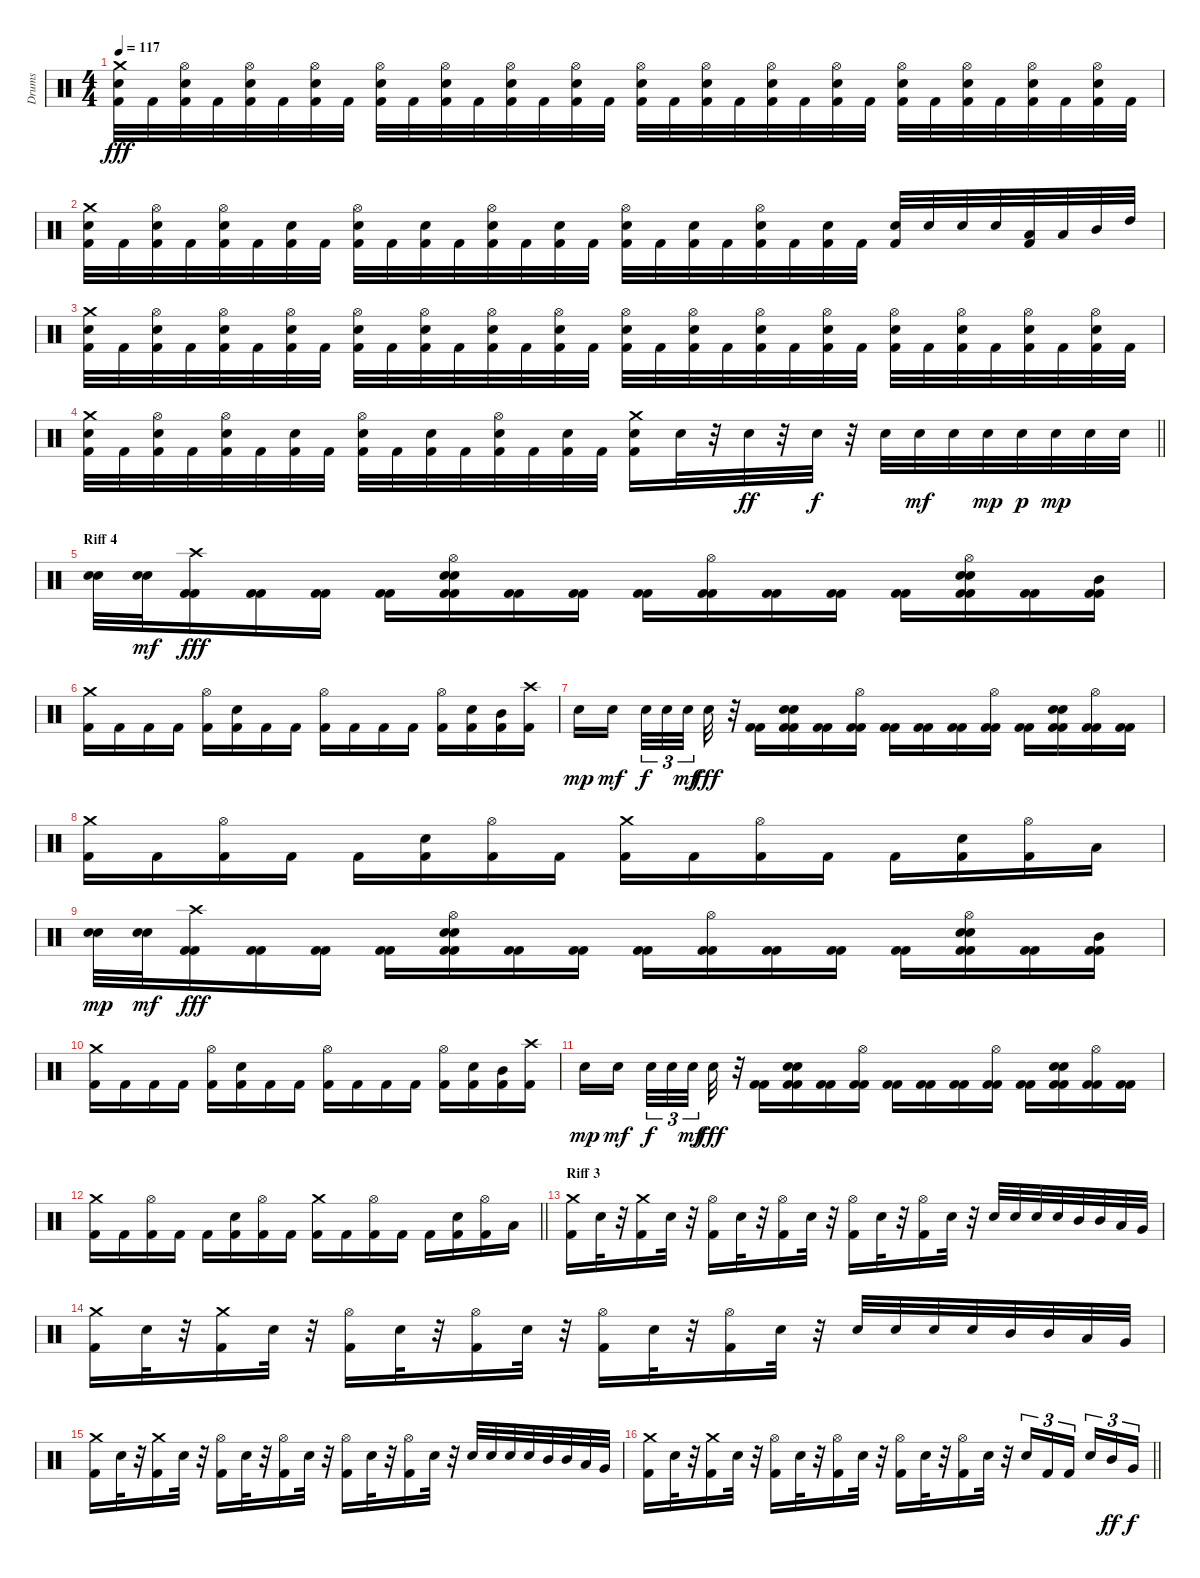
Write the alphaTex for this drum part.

\track ("Drums" "Drums") {instrument percussion}
\staff {score}
\articulation defaults
\ts (4 4)
\tempo 117
\clef neutral
\ks c
("Kick (hit) 2" "Snare (hit) 2" "Crash medium (hit)").32{dy fff} "Kick (hit) 2".32 ("Kick (hit) 2" "Snare (hit) 2" "Hi-Hat (open)").32 "Kick (hit) 2".32 ("Kick (hit) 2" "Snare (hit) 2" "Hi-Hat (open)").32 "Kick (hit) 2".32 ("Kick (hit) 2" "Snare (hit) 2" "Hi-Hat (open)").32 "Kick (hit) 2".32 ("Kick (hit) 2" "Snare (hit) 2" "Hi-Hat (open)").32 "Kick (hit) 2".32 ("Kick (hit) 2" "Snare (hit) 2" "Hi-Hat (open)").32 "Kick (hit) 2".32 ("Kick (hit) 2" "Snare (hit) 2" "Hi-Hat (open)").32 "Kick (hit) 2".32 ("Kick (hit) 2" "Snare (hit) 2" "Hi-Hat (open)").32 "Kick (hit) 2".32 ("Kick (hit) 2" "Snare (hit) 2" "Hi-Hat (open)").32 "Kick (hit) 2".32 ("Kick (hit) 2" "Snare (hit) 2" "Hi-Hat (open)").32 "Kick (hit) 2".32 ("Kick (hit) 2" "Snare (hit) 2" "Hi-Hat (open)").32 "Kick (hit) 2".32 ("Kick (hit) 2" "Snare (hit) 2" "Hi-Hat (open)").32 "Kick (hit) 2".32 ("Kick (hit) 2" "Snare (hit) 2" "Hi-Hat (open)").32 "Kick (hit) 2".32 ("Kick (hit) 2" "Snare (hit) 2" "Hi-Hat (open)").32 "Kick (hit) 2".32 ("Kick (hit) 2" "Snare (hit) 2" "Hi-Hat (open)").32 "Kick (hit) 2".32 ("Kick (hit) 2" "Snare (hit) 2" "Hi-Hat (open)").32 "Kick (hit) 2".32 |
("Kick (hit) 2" "Snare (hit) 2" "Crash medium (hit)").32 "Kick (hit) 2".32 ("Kick (hit) 2" "Snare (hit) 2" "Hi-Hat (open)").32 "Kick (hit) 2".32 ("Kick (hit) 2" "Snare (hit) 2" "Hi-Hat (open)").32 "Kick (hit) 2".32 ("Kick (hit) 2" "Snare (hit) 2").32 "Kick (hit) 2".32 ("Kick (hit) 2" "Snare (hit) 2" "Hi-Hat (open)").32 "Kick (hit) 2".32 ("Kick (hit) 2" "Snare (hit) 2").32 "Kick (hit) 2".32 ("Kick (hit) 2" "Snare (hit) 2" "Hi-Hat (open)").32 "Kick (hit) 2".32 ("Kick (hit) 2" "Snare (hit) 2").32 "Kick (hit) 2".32 ("Kick (hit) 2" "Snare (hit) 2" "Hi-Hat (open)").32 "Kick (hit) 2".32 ("Kick (hit) 2" "Snare (hit) 2").32 "Kick (hit) 2".32 ("Kick (hit) 2" "Snare (hit) 2" "Hi-Hat (open)").32 "Kick (hit) 2".32 ("Kick (hit) 2" "Snare (hit) 2").32 "Kick (hit) 2".32 ("Kick (hit) 2" "Snare (hit) 2").32 "Snare (hit) 2".32 "Snare (hit) 2".32 "Snare (hit) 2".32 ("Kick (hit) 2" "Low Tom (hit)").32 "Low Tom (hit)".32 "Mid Tom (hit)".32 "High Tom (hit)".32 |
("Kick (hit) 2" "Snare (hit) 2" "Crash medium (hit)").32 "Kick (hit) 2".32 ("Kick (hit) 2" "Snare (hit) 2" "Hi-Hat (open)").32 "Kick (hit) 2".32 ("Kick (hit) 2" "Snare (hit) 2" "Hi-Hat (open)").32 "Kick (hit) 2".32 ("Kick (hit) 2" "Snare (hit) 2" "Hi-Hat (open)").32 "Kick (hit) 2".32 ("Kick (hit) 2" "Snare (hit) 2" "Hi-Hat (open)").32 "Kick (hit) 2".32 ("Kick (hit) 2" "Snare (hit) 2" "Hi-Hat (open)").32 "Kick (hit) 2".32 ("Kick (hit) 2" "Snare (hit) 2" "Hi-Hat (open)").32 "Kick (hit) 2".32 ("Kick (hit) 2" "Snare (hit) 2" "Hi-Hat (open)").32 "Kick (hit) 2".32 ("Kick (hit) 2" "Snare (hit) 2" "Hi-Hat (open)").32 "Kick (hit) 2".32 ("Kick (hit) 2" "Snare (hit) 2" "Hi-Hat (open)").32 "Kick (hit) 2".32 ("Kick (hit) 2" "Snare (hit) 2" "Hi-Hat (open)").32 "Kick (hit) 2".32 ("Kick (hit) 2" "Snare (hit) 2" "Hi-Hat (open)").32 "Kick (hit) 2".32 ("Kick (hit) 2" "Snare (hit) 2" "Hi-Hat (open)").32 "Kick (hit) 2".32 ("Kick (hit) 2" "Snare (hit) 2" "Hi-Hat (open)").32 "Kick (hit) 2".32 ("Kick (hit) 2" "Snare (hit) 2" "Hi-Hat (open)").32 "Kick (hit) 2".32 ("Kick (hit) 2" "Snare (hit) 2" "Hi-Hat (open)").32 "Kick (hit) 2".32 |
\barLineRight lightlight
("Kick (hit) 2" "Snare (hit) 2" "Crash medium (hit)").32 "Kick (hit) 2".32 ("Kick (hit) 2" "Snare (hit) 2" "Hi-Hat (open)").32 "Kick (hit) 2".32 ("Kick (hit) 2" "Snare (hit) 2" "Hi-Hat (open)").32 "Kick (hit) 2".32 ("Kick (hit) 2" "Snare (hit) 2").32 "Kick (hit) 2".32 ("Kick (hit) 2" "Snare (hit) 2" "Hi-Hat (open)").32 "Kick (hit) 2".32 ("Kick (hit) 2" "Snare (hit) 2").32 "Kick (hit) 2".32 ("Kick (hit) 2" "Snare (hit) 2" "Hi-Hat (open)").32 "Kick (hit) 2".32 ("Kick (hit) 2" "Snare (hit) 2").32 "Kick (hit) 2".32 ("Kick (hit) 2" "Snare (hit) 2" "Crash medium (hit)").16 "Snare (hit) 2".32 r.32 "Snare (hit) 2".32{dy ff} r.32 "Snare (hit) 2".32{dy f} r.32 "Snare (hit) 2".32 "Snare (hit) 2".32{dy mf} "Snare (hit) 2".32 "Snare (hit) 2".32{dy mp} "Snare (hit) 2".32{dy p} "Snare (hit) 2".32{dy mp} "Snare (hit) 2".32 "Snare (hit) 2".32 |
\section ("" "Riff 4")
("Snare (hit) 2" "Snare (hit) 2").32 ("Snare (hit) 2" "Snare (hit) 2").32{dy mf} ("Kick (hit) 2" "Kick (hit) 2" "Crash high (hit)").16{dy fff} ("Kick (hit) 2" "Kick (hit) 2").16 ("Kick (hit) 2" "Kick (hit) 2").16 ("Kick (hit) 2" "Kick (hit) 2").16 ("Kick (hit) 2" "Kick (hit) 2" "Snare (hit) 2" "Snare (hit) 2" "Hi-Hat (open)").16 ("Kick (hit) 2" "Kick (hit) 2").16 ("Kick (hit) 2" "Kick (hit) 2").16 ("Kick (hit) 2" "Kick (hit) 2").16 ("Kick (hit) 2" "Kick (hit) 2" "Hi-Hat (open)").16 ("Kick (hit) 2" "Kick (hit) 2").16 ("Kick (hit) 2" "Kick (hit) 2").16 ("Kick (hit) 2" "Kick (hit) 2").16 ("Kick (hit) 2" "Kick (hit) 2" "Snare (hit) 2" "Snare (hit) 2" "Hi-Hat (open)").16 ("Kick (hit) 2" "Kick (hit) 2").16 ("Kick (hit) 2" "Kick (hit) 2" "Mid Tom (hit)").16 |
("Kick (hit) 2" "Crash medium (hit)").16 "Kick (hit) 2".16 "Kick (hit) 2".16 "Kick (hit) 2".16 ("Kick (hit) 2" "Hi-Hat (open)").16 ("Kick (hit) 2" "Snare (hit) 2").16 "Kick (hit) 2".16 "Kick (hit) 2".16 ("Kick (hit) 2" "Hi-Hat (open)").16 "Kick (hit) 2".16 "Kick (hit) 2".16 "Kick (hit) 2".16 ("Kick (hit) 2" "Hi-Hat (open)").16 ("Kick (hit) 2" "Snare (hit) 2").16 ("Kick (hit) 2" "Mid Tom (hit)").16 ("Kick (hit) 2" "Crash high (hit)").16 |
"Snare (hit) 2".16{dy mp} "Snare (hit) 2".16{dy mf beam splitsecondary} "Snare (hit) 2".32{tu (3 2) dy f} "Snare (hit) 2".32{tu (3 2)} "Snare (hit) 2".32{tu (3 2) dy mf beam splitsecondary} "Snare (hit) 2".32{dy fff} r.32 ("Kick (hit) 2" "Kick (hit) 2").16 ("Kick (hit) 2" "Kick (hit) 2" "Snare (hit) 2" "Snare (hit) 2").16 ("Kick (hit) 2" "Kick (hit) 2").16 ("Kick (hit) 2" "Kick (hit) 2" "Hi-Hat (open)").16 ("Kick (hit) 2" "Kick (hit) 2").16 ("Kick (hit) 2" "Kick (hit) 2").16 ("Kick (hit) 2" "Kick (hit) 2").16 ("Kick (hit) 2" "Kick (hit) 2" "Hi-Hat (open)").16 ("Kick (hit) 2" "Kick (hit) 2").16 ("Kick (hit) 2" "Kick (hit) 2" "Snare (hit) 2" "Snare (hit) 2").16 ("Kick (hit) 2" "Kick (hit) 2" "Hi-Hat (open)").16 ("Kick (hit) 2" "Kick (hit) 2").16 |
("Kick (hit) 2" "Crash medium (hit)").16 "Kick (hit) 2".16 ("Kick (hit) 2" "Hi-Hat (open)").16 "Kick (hit) 2".16 "Kick (hit) 2".16 ("Kick (hit) 2" "Snare (hit) 2").16 ("Kick (hit) 2" "Hi-Hat (open)").16 "Kick (hit) 2".16 ("Kick (hit) 2" "Crash medium (hit)").16 "Kick (hit) 2".16 ("Kick (hit) 2" "Hi-Hat (open)").16 "Kick (hit) 2".16 "Kick (hit) 2".16 ("Kick (hit) 2" "Snare (hit) 2").16 ("Kick (hit) 2" "Hi-Hat (open)").16 "Low Tom (hit)".16 |
("Snare (hit) 2" "Snare (hit) 2").32{dy mp} ("Snare (hit) 2" "Snare (hit) 2").32{dy mf} ("Kick (hit) 2" "Kick (hit) 2" "Crash high (hit)").16{dy fff} ("Kick (hit) 2" "Kick (hit) 2").16 ("Kick (hit) 2" "Kick (hit) 2").16 ("Kick (hit) 2" "Kick (hit) 2").16 ("Kick (hit) 2" "Kick (hit) 2" "Snare (hit) 2" "Snare (hit) 2" "Hi-Hat (open)").16 ("Kick (hit) 2" "Kick (hit) 2").16 ("Kick (hit) 2" "Kick (hit) 2").16 ("Kick (hit) 2" "Kick (hit) 2").16 ("Kick (hit) 2" "Kick (hit) 2" "Hi-Hat (open)").16 ("Kick (hit) 2" "Kick (hit) 2").16 ("Kick (hit) 2" "Kick (hit) 2").16 ("Kick (hit) 2" "Kick (hit) 2").16 ("Kick (hit) 2" "Kick (hit) 2" "Snare (hit) 2" "Snare (hit) 2" "Hi-Hat (open)").16 ("Kick (hit) 2" "Kick (hit) 2").16 ("Kick (hit) 2" "Kick (hit) 2" "Mid Tom (hit)").16 |
("Kick (hit) 2" "Crash medium (hit)").16 "Kick (hit) 2".16 "Kick (hit) 2".16 "Kick (hit) 2".16 ("Kick (hit) 2" "Hi-Hat (open)").16 ("Kick (hit) 2" "Snare (hit) 2").16 "Kick (hit) 2".16 "Kick (hit) 2".16 ("Kick (hit) 2" "Hi-Hat (open)").16 "Kick (hit) 2".16 "Kick (hit) 2".16 "Kick (hit) 2".16 ("Kick (hit) 2" "Hi-Hat (open)").16 ("Kick (hit) 2" "Snare (hit) 2").16 ("Kick (hit) 2" "Mid Tom (hit)").16 ("Kick (hit) 2" "Crash high (hit)").16 |
"Snare (hit) 2".16{dy mp} "Snare (hit) 2".16{dy mf beam splitsecondary} "Snare (hit) 2".32{tu (3 2) dy f} "Snare (hit) 2".32{tu (3 2)} "Snare (hit) 2".32{tu (3 2) dy mf beam splitsecondary} "Snare (hit) 2".32{dy fff} r.32 ("Kick (hit) 2" "Kick (hit) 2").16 ("Kick (hit) 2" "Kick (hit) 2" "Snare (hit) 2" "Snare (hit) 2").16 ("Kick (hit) 2" "Kick (hit) 2").16 ("Kick (hit) 2" "Kick (hit) 2" "Hi-Hat (open)").16 ("Kick (hit) 2" "Kick (hit) 2").16 ("Kick (hit) 2" "Kick (hit) 2").16 ("Kick (hit) 2" "Kick (hit) 2").16 ("Kick (hit) 2" "Kick (hit) 2" "Hi-Hat (open)").16 ("Kick (hit) 2" "Kick (hit) 2").16 ("Kick (hit) 2" "Kick (hit) 2" "Snare (hit) 2" "Snare (hit) 2").16 ("Kick (hit) 2" "Kick (hit) 2" "Hi-Hat (open)").16 ("Kick (hit) 2" "Kick (hit) 2").16 |
\barLineRight lightlight
("Kick (hit) 2" "Crash medium (hit)").16 "Kick (hit) 2".16 ("Kick (hit) 2" "Hi-Hat (open)").16 "Kick (hit) 2".16 "Kick (hit) 2".16 ("Kick (hit) 2" "Snare (hit) 2").16 ("Kick (hit) 2" "Hi-Hat (open)").16 "Kick (hit) 2".16 ("Kick (hit) 2" "Crash medium (hit)").16 "Kick (hit) 2".16 ("Kick (hit) 2" "Hi-Hat (open)").16 "Kick (hit) 2".16 "Kick (hit) 2".16 ("Kick (hit) 2" "Snare (hit) 2").16 ("Kick (hit) 2" "Hi-Hat (open)").16 "Low Tom (hit)".16 |
\section ("" "Riff 3")
("Kick (hit) 2" "Crash medium (hit)").16 "Snare (hit) 2".32 r.32 ("Kick (hit) 2" "Crash medium (hit)").16 "Snare (hit) 2".32 r.32 ("Kick (hit) 2" "Hi-Hat (open)").16 "Snare (hit) 2".32 r.32 ("Kick (hit) 2" "Hi-Hat (open)").16 "Snare (hit) 2".32 r.32 ("Kick (hit) 2" "Hi-Hat (open)").16 "Snare (hit) 2".32 r.32 ("Kick (hit) 2" "Hi-Hat (open)").16 "Snare (hit) 2".32 r.32 "Snare (hit) 2".32 "Snare (hit) 2".32 "Snare (hit) 2".32 "Snare (hit) 2".32 "Mid Tom (hit)".32 "Mid Tom (hit)".32 "Low Tom (hit)".32 "Very Low Tom (hit)".32 |
("Kick (hit) 2" "Crash medium (hit)").16 "Snare (hit) 2".32 r.32 ("Kick (hit) 2" "Crash medium (hit)").16 "Snare (hit) 2".32 r.32 ("Kick (hit) 2" "Hi-Hat (open)").16 "Snare (hit) 2".32 r.32 ("Kick (hit) 2" "Hi-Hat (open)").16 "Snare (hit) 2".32 r.32 ("Kick (hit) 2" "Hi-Hat (open)").16 "Snare (hit) 2".32 r.32 ("Kick (hit) 2" "Hi-Hat (open)").16 "Snare (hit) 2".32 r.32 "Snare (hit) 2".32 "Snare (hit) 2".32 "Snare (hit) 2".32 "Snare (hit) 2".32 "Mid Tom (hit)".32 "Mid Tom (hit)".32 "Low Tom (hit)".32 "Very Low Tom (hit)".32 |
("Kick (hit) 2" "Crash medium (hit)").16 "Snare (hit) 2".32 r.32 ("Kick (hit) 2" "Crash medium (hit)").16 "Snare (hit) 2".32 r.32 ("Kick (hit) 2" "Hi-Hat (open)").16 "Snare (hit) 2".32 r.32 ("Kick (hit) 2" "Hi-Hat (open)").16 "Snare (hit) 2".32 r.32 ("Kick (hit) 2" "Hi-Hat (open)").16 "Snare (hit) 2".32 r.32 ("Kick (hit) 2" "Hi-Hat (open)").16 "Snare (hit) 2".32 r.32 "Snare (hit) 2".32 "Snare (hit) 2".32 "Snare (hit) 2".32 "Snare (hit) 2".32 "Mid Tom (hit)".32 "Mid Tom (hit)".32 "Low Tom (hit)".32 "Very Low Tom (hit)".32 |
\barLineRight lightlight
("Kick (hit) 2" "Crash medium (hit)").16 "Snare (hit) 2".32 r.32 ("Kick (hit) 2" "Crash medium (hit)").16 "Snare (hit) 2".32 r.32 ("Kick (hit) 2" "Hi-Hat (open)").16 "Snare (hit) 2".32 r.32 ("Kick (hit) 2" "Hi-Hat (open)").16 "Snare (hit) 2".32 r.32 ("Kick (hit) 2" "Hi-Hat (open)").16 "Snare (hit) 2".32 r.32 ("Kick (hit) 2" "Hi-Hat (open)").16 "Snare (hit) 2".32 r.32 "Snare (hit) 2".16{tu (3 2)} "Kick (hit) 2".16{tu (3 2)} "Kick (hit) 2".16{tu (3 2) beam splitsecondary} "Snare (hit) 2".16{tu (3 2)} "Mid Tom (hit)".16{tu (3 2) dy ff} "Very Low Tom (hit)".16{tu (3 2) dy f}
